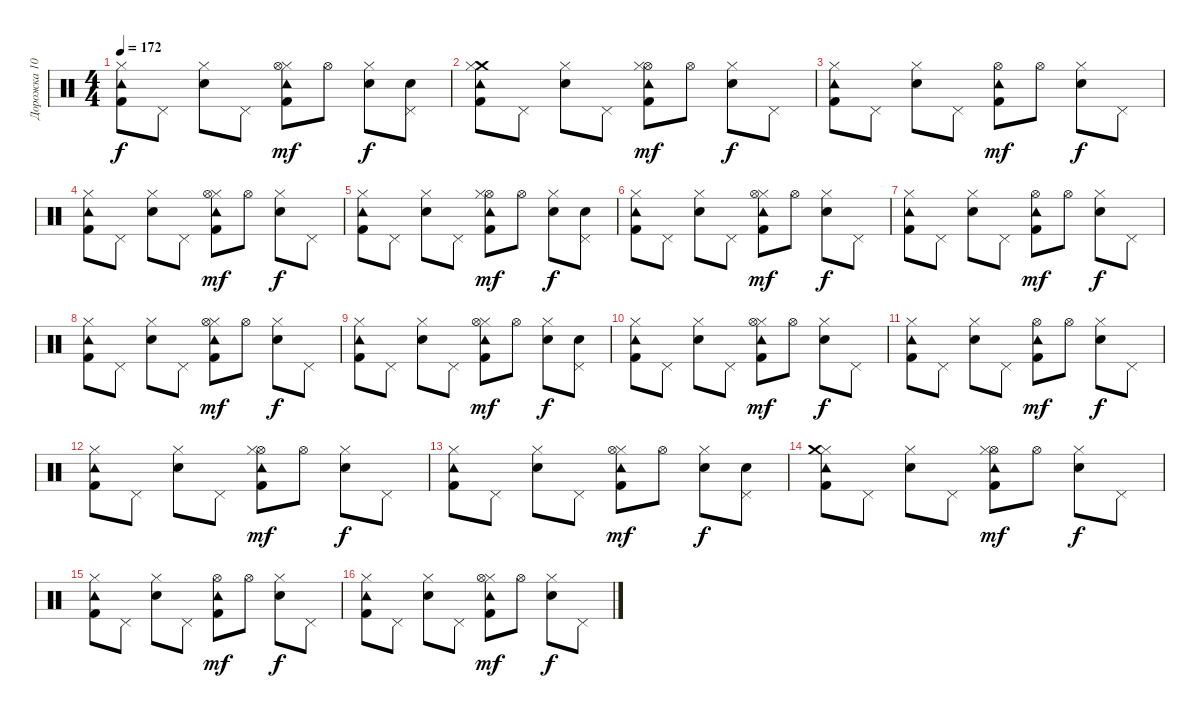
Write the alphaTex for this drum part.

\track ("Дорожка 10" "Дорожка 10") {instrument percussion}
\staff {score}
\articulation defaults
\ts (4 4)
\tempo 172
\clef neutral
\ks c
("Hi-Hat (closed)" "Tambourine (hit)" "Kick (hit) 2").8{dy f} "Pedal Hi-Hat (hit)".8 ("Hi-Hat (closed)" "Snare (hit) 2").8 "Pedal Hi-Hat (hit)".8 ("Tambourine (hit)" "Hi-Hat (closed)" "Hi-Hat (open)" "Kick (hit) 2").8{dy mf} "Hi-Hat (open)".8 ("Hi-Hat (closed)" "Snare (hit) 2").8{dy f} ("Snare (hit) 2" "Pedal Hi-Hat (hit)").8 |
("Crash medium (hit)" "Tambourine (hit)" "Hi-Hat (closed)" "Kick (hit) 2").8 "Pedal Hi-Hat (hit)".8 ("Hi-Hat (closed)" "Snare (hit) 2").8 "Pedal Hi-Hat (hit)".8 ("Hi-Hat (open)" "Tambourine (hit)" "Kick (hit) 2" "Hi-Hat (closed)").8{dy mf} "Hi-Hat (open)".8 ("Hi-Hat (closed)" "Snare (hit) 2").8{dy f} "Pedal Hi-Hat (hit)".8 |
("Hi-Hat (closed)" "Kick (hit) 2" "Tambourine (hit)").8 "Pedal Hi-Hat (hit)".8 ("Hi-Hat (closed)" "Snare (hit) 2").8 "Pedal Hi-Hat (hit)".8 ("Hi-Hat (open)" "Kick (hit) 2" "Tambourine (hit)").8{dy mf} "Hi-Hat (open)".8 ("Hi-Hat (closed)" "Snare (hit) 2").8{dy f} "Pedal Hi-Hat (hit)".8 |
("Tambourine (hit)" "Hi-Hat (closed)" "Kick (hit) 2").8 "Pedal Hi-Hat (hit)".8 ("Snare (hit) 2" "Hi-Hat (closed)").8 "Pedal Hi-Hat (hit)".8 ("Hi-Hat (closed)" "Kick (hit) 2" "Tambourine (hit)" "Hi-Hat (open)").8{dy mf} "Hi-Hat (open)".8 ("Snare (hit) 2" "Hi-Hat (closed)").8{dy f} "Pedal Hi-Hat (hit)".8 |
("Tambourine (hit)" "Hi-Hat (closed)" "Kick (hit) 2").8 "Pedal Hi-Hat (hit)".8 ("Hi-Hat (closed)" "Snare (hit) 2").8 "Pedal Hi-Hat (hit)".8 ("Kick (hit) 2" "Hi-Hat (open)" "Hi-Hat (closed)" "Tambourine (hit)").8{dy mf} "Hi-Hat (open)".8 ("Hi-Hat (closed)" "Snare (hit) 2").8{dy f} ("Snare (hit) 2" "Pedal Hi-Hat (hit)").8 |
("Tambourine (hit)" "Kick (hit) 2" "Hi-Hat (closed)").8 "Pedal Hi-Hat (hit)".8 ("Snare (hit) 2" "Hi-Hat (closed)").8 "Pedal Hi-Hat (hit)".8 ("Hi-Hat (closed)" "Kick (hit) 2" "Tambourine (hit)" "Hi-Hat (open)").8{dy mf} "Hi-Hat (open)".8 ("Hi-Hat (closed)" "Snare (hit) 2").8{dy f} "Pedal Hi-Hat (hit)".8 |
("Kick (hit) 2" "Tambourine (hit)" "Hi-Hat (closed)").8 "Pedal Hi-Hat (hit)".8 ("Snare (hit) 2" "Hi-Hat (closed)").8 "Pedal Hi-Hat (hit)".8 ("Hi-Hat (open)" "Tambourine (hit)" "Kick (hit) 2").8{dy mf} "Hi-Hat (open)".8 ("Hi-Hat (closed)" "Snare (hit) 2").8{dy f} "Pedal Hi-Hat (hit)".8 |
("Tambourine (hit)" "Hi-Hat (closed)" "Kick (hit) 2").8 "Pedal Hi-Hat (hit)".8 ("Snare (hit) 2" "Hi-Hat (closed)").8 "Pedal Hi-Hat (hit)".8 ("Hi-Hat (closed)" "Tambourine (hit)" "Hi-Hat (open)" "Kick (hit) 2").8{dy mf} "Hi-Hat (open)".8 ("Snare (hit) 2" "Hi-Hat (closed)").8{dy f} "Pedal Hi-Hat (hit)".8 |
("Kick (hit) 2" "Tambourine (hit)" "Hi-Hat (closed)").8 "Pedal Hi-Hat (hit)".8 ("Snare (hit) 2" "Hi-Hat (closed)").8 "Pedal Hi-Hat (hit)".8 ("Tambourine (hit)" "Hi-Hat (closed)" "Hi-Hat (open)" "Kick (hit) 2").8{dy mf} "Hi-Hat (open)".8 ("Snare (hit) 2" "Hi-Hat (closed)").8{dy f} ("Snare (hit) 2" "Pedal Hi-Hat (hit)").8 |
("Kick (hit) 2" "Hi-Hat (closed)" "Tambourine (hit)").8 "Pedal Hi-Hat (hit)".8 ("Snare (hit) 2" "Hi-Hat (closed)").8 "Pedal Hi-Hat (hit)".8 ("Hi-Hat (closed)" "Kick (hit) 2" "Tambourine (hit)" "Hi-Hat (open)").8{dy mf} "Hi-Hat (open)".8 ("Hi-Hat (closed)" "Snare (hit) 2").8{dy f} "Pedal Hi-Hat (hit)".8 |
("Hi-Hat (closed)" "Kick (hit) 2" "Tambourine (hit)").8 "Pedal Hi-Hat (hit)".8 ("Snare (hit) 2" "Hi-Hat (closed)").8 "Pedal Hi-Hat (hit)".8 ("Tambourine (hit)" "Kick (hit) 2" "Hi-Hat (open)").8{dy mf} "Hi-Hat (open)".8 ("Snare (hit) 2" "Hi-Hat (closed)").8{dy f} "Pedal Hi-Hat (hit)".8 |
("Kick (hit) 2" "Hi-Hat (closed)" "Tambourine (hit)").8 "Pedal Hi-Hat (hit)".8 ("Hi-Hat (closed)" "Snare (hit) 2").8 "Pedal Hi-Hat (hit)".8 ("Hi-Hat (open)" "Tambourine (hit)" "Kick (hit) 2" "Hi-Hat (closed)").8{dy mf} "Hi-Hat (open)".8 ("Hi-Hat (closed)" "Snare (hit) 2").8{dy f} "Pedal Hi-Hat (hit)".8 |
("Kick (hit) 2" "Hi-Hat (closed)" "Tambourine (hit)").8 "Pedal Hi-Hat (hit)".8 ("Snare (hit) 2" "Hi-Hat (closed)").8 "Pedal Hi-Hat (hit)".8 ("Tambourine (hit)" "Hi-Hat (closed)" "Hi-Hat (open)" "Kick (hit) 2").8{dy mf} "Hi-Hat (open)".8 ("Snare (hit) 2" "Hi-Hat (closed)").8{dy f} ("Pedal Hi-Hat (hit)" "Snare (hit) 2").8 |
("Hi-Hat (closed)" "Kick (hit) 2" "Tambourine (hit)" "Crash medium (hit)").8 "Pedal Hi-Hat (hit)".8 ("Hi-Hat (closed)" "Snare (hit) 2").8 "Pedal Hi-Hat (hit)".8 ("Hi-Hat (open)" "Tambourine (hit)" "Kick (hit) 2" "Hi-Hat (closed)").8{dy mf} "Hi-Hat (open)".8 ("Snare (hit) 2" "Hi-Hat (closed)").8{dy f} "Pedal Hi-Hat (hit)".8 |
("Hi-Hat (closed)" "Tambourine (hit)" "Kick (hit) 2").8 "Pedal Hi-Hat (hit)".8 ("Hi-Hat (closed)" "Snare (hit) 2").8 "Pedal Hi-Hat (hit)".8 ("Hi-Hat (open)" "Tambourine (hit)" "Kick (hit) 2").8{dy mf} "Hi-Hat (open)".8 ("Snare (hit) 2" "Hi-Hat (closed)").8{dy f} "Pedal Hi-Hat (hit)".8 |
("Kick (hit) 2" "Hi-Hat (closed)" "Tambourine (hit)").8 "Pedal Hi-Hat (hit)".8 ("Hi-Hat (closed)" "Snare (hit) 2").8 "Pedal Hi-Hat (hit)".8 ("Hi-Hat (closed)" "Tambourine (hit)" "Hi-Hat (open)" "Kick (hit) 2").8{dy mf} "Hi-Hat (open)".8 ("Snare (hit) 2" "Hi-Hat (closed)").8{dy f} "Pedal Hi-Hat (hit)".8
